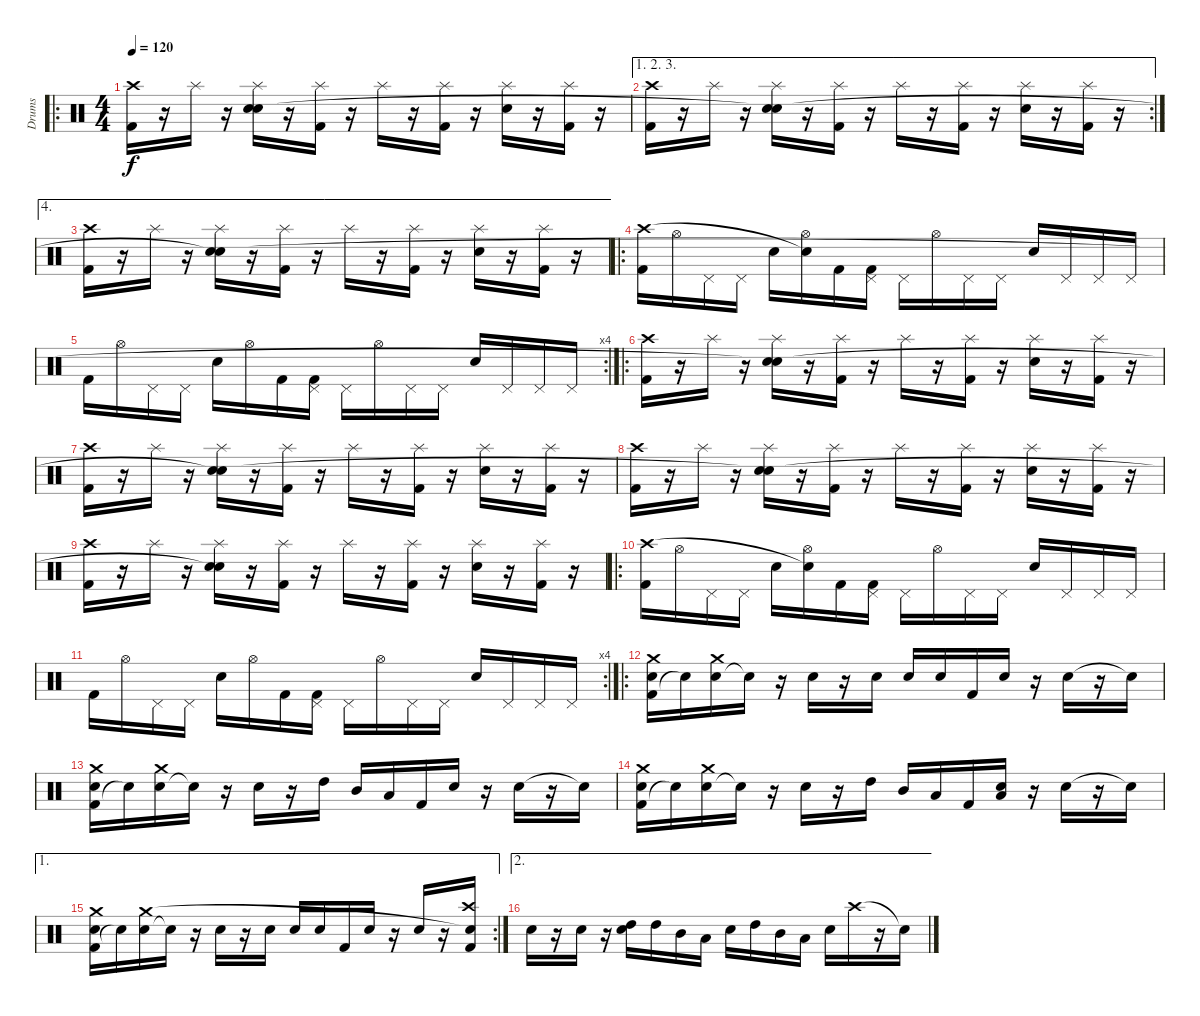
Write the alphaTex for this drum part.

\track ("Drums" "Drums") {instrument percussion}
\staff {score}
\articulation defaults
\ro
\ts (4 4)
\tempo 120
\clef neutral
\ks c
("Kick (hit) 2" "Crash high (hit)").16{dy f} r.16 "Splash (hit)".16 r.16 ("Snare (hit) 2" "Splash (hit)" "Snare (hit)").16 r.16 ("Kick (hit) 2" "Splash (hit)").16 r.16 "Splash (hit)".16 r.16 ("Kick (hit) 2" "Splash (hit)").16 r.16 ("Snare (hit) 2" "Splash (hit)").16 r.16 ("Kick (hit) 2" "Splash (hit)").16 r.16 |
\ae (1 2 3)
\rc 2
("Kick (hit) 2" "Crash high (hit)").16 r.16 "Splash (hit)".16 r.16 ("Snare (hit) 2" "Splash (hit)" "Snare (hit)"{t}).16 r.16 ("Kick (hit) 2" "Splash (hit)").16 r.16 "Splash (hit)".16 r.16 ("Kick (hit) 2" "Splash (hit)").16 r.16 ("Snare (hit) 2" "Splash (hit)").16 r.16 ("Kick (hit) 2" "Splash (hit)").16 r.16 |
\ae 4
("Kick (hit) 2" "Crash high (hit)").16 r.16 "Splash (hit)".16 r.16 ("Snare (hit) 2" "Splash (hit)" "Snare (hit)"{t}).16 r.16 ("Kick (hit) 2" "Splash (hit)").16 r.16 "Splash (hit)".16 r.16 ("Kick (hit) 2" "Splash (hit)").16 r.16 ("Snare (hit) 2" "Splash (hit)").16 r.16 ("Kick (hit) 2" "Splash (hit)").16 r.16 |
\ro
("Kick (hit) 2" "Crash high (hit)").16 "Hi-Hat (open)".16 "Pedal Hi-Hat (hit)".16 "Pedal Hi-Hat (hit)".16 "Snare (hit) 2".16 ("Hi-Hat (open)" "Snare (hit)"{t}).16 "Kick (hit) 2".16 ("Kick (hit) 2" "Pedal Hi-Hat (hit)").16 "Pedal Hi-Hat (hit)".16 "Hi-Hat (open)".16 "Pedal Hi-Hat (hit)".16 "Pedal Hi-Hat (hit)".16 "Snare (hit) 2".16 "Pedal Hi-Hat (hit)".16 "Pedal Hi-Hat (hit)".16 "Pedal Hi-Hat (hit)".16 |
\rc 4 "Kick (hit) 2".16 "Hi-Hat (open)".16 "Pedal Hi-Hat (hit)".16 "Pedal Hi-Hat (hit)".16 "Snare (hit) 2".16 "Hi-Hat (open)".16 "Kick (hit) 2".16
("Kick (hit) 2" "Pedal Hi-Hat (hit)").16 "Pedal Hi-Hat (hit)".16 "Hi-Hat (open)".16 "Pedal Hi-Hat (hit)".16 "Pedal Hi-Hat (hit)".16 "Snare (hit) 2".16 "Pedal Hi-Hat (hit)".16 "Pedal Hi-Hat (hit)".16 "Pedal Hi-Hat (hit)".16 |
\ro
("Kick (hit) 2" "Crash high (hit)").16 r.16 "Splash (hit)".16 r.16 ("Snare (hit) 2" "Splash (hit)" "Snare (hit)"{t}).16 r.16 ("Kick (hit) 2" "Splash (hit)").16 r.16 "Splash (hit)".16 r.16 ("Kick (hit) 2" "Splash (hit)").16 r.16 ("Snare (hit) 2" "Splash (hit)").16 r.16 ("Kick (hit) 2" "Splash (hit)").16 r.16 |
("Kick (hit) 2" "Crash high (hit)").16 r.16 "Splash (hit)".16 r.16 ("Snare (hit) 2" "Splash (hit)" "Snare (hit)"{t}).16 r.16 ("Kick (hit) 2" "Splash (hit)").16 r.16 "Splash (hit)".16 r.16 ("Kick (hit) 2" "Splash (hit)").16 r.16 ("Snare (hit) 2" "Splash (hit)").16 r.16 ("Kick (hit) 2" "Splash (hit)").16 r.16 |
("Kick (hit) 2" "Crash high (hit)").16 r.16 "Splash (hit)".16 r.16 ("Snare (hit) 2" "Splash (hit)" "Snare (hit)"{t}).16 r.16 ("Kick (hit) 2" "Splash (hit)").16 r.16 "Splash (hit)".16 r.16 ("Kick (hit) 2" "Splash (hit)").16 r.16 ("Snare (hit) 2" "Splash (hit)").16 r.16 ("Kick (hit) 2" "Splash (hit)").16 r.16 |
("Kick (hit) 2" "Crash high (hit)").16 r.16 "Splash (hit)".16 r.16 ("Snare (hit) 2" "Splash (hit)" "Snare (hit)"{t}).16 r.16 ("Kick (hit) 2" "Splash (hit)").16 r.16 "Splash (hit)".16 r.16 ("Kick (hit) 2" "Splash (hit)").16 r.16 ("Snare (hit) 2" "Splash (hit)").16 r.16 ("Kick (hit) 2" "Splash (hit)").16 r.16 |
\ro
("Kick (hit) 2" "Crash high (hit)").16 "Hi-Hat (open)".16 "Pedal Hi-Hat (hit)".16 "Pedal Hi-Hat (hit)".16 "Snare (hit) 2".16 ("Hi-Hat (open)" "Snare (hit)"{t}).16 "Kick (hit) 2".16 ("Kick (hit) 2" "Pedal Hi-Hat (hit)").16 "Pedal Hi-Hat (hit)".16 "Hi-Hat (open)".16 "Pedal Hi-Hat (hit)".16 "Pedal Hi-Hat (hit)".16 "Snare (hit) 2".16 "Pedal Hi-Hat (hit)".16 "Pedal Hi-Hat (hit)".16 "Pedal Hi-Hat (hit)".16 |
\rc 4 "Kick (hit) 2".16 "Hi-Hat (open)".16 "Pedal Hi-Hat (hit)".16 "Pedal Hi-Hat (hit)".16 "Snare (hit) 2".16 "Hi-Hat (open)".16 "Kick (hit) 2".16
("Kick (hit) 2" "Pedal Hi-Hat (hit)").16 "Pedal Hi-Hat (hit)".16 "Hi-Hat (open)".16 "Pedal Hi-Hat (hit)".16 "Pedal Hi-Hat (hit)".16 "Snare (hit) 2".16 "Pedal Hi-Hat (hit)".16 "Pedal Hi-Hat (hit)".16 "Pedal Hi-Hat (hit)".16 |
\ro
("Kick (hit) 2" "Snare (hit) 2" "Crash medium (hit)").16 "Snare (hit)"{t}.16 ("Snare (hit) 2" "Crash medium (hit)").16 "Snare (hit)"{t}.16 r.16 "Snare (hit) 2".16 r.16 "Snare (hit) 2".16 "Snare (hit) 2".16 "Snare (hit) 2".16 "Kick (hit) 2".16 "Snare (hit) 2".16 r.16 "Snare (hit) 2".16 r.16 "Snare (hit)"{t}.16 |
("Kick (hit) 2" "Snare (hit) 2" "Crash medium (hit)").16 "Snare (hit)"{t}.16 ("Snare (hit) 2" "Crash medium (hit)").16 "Snare (hit)"{t}.16 r.16 "Snare (hit) 2".16 r.16 "High Tom (hit)".16 "Mid Tom (hit)".16 "Low Tom (hit)".16 "Kick (hit) 2".16 "Snare (hit) 2".16 r.16 "Snare (hit) 2".16 r.16 "Snare (hit)"{t}.16 |
("Kick (hit) 2" "Snare (hit) 2" "Crash medium (hit)").16 "Snare (hit)"{t}.16 ("Snare (hit) 2" "Crash medium (hit)").16 "Snare (hit)"{t}.16 r.16 "Snare (hit) 2".16 r.16 "High Tom (hit)".16 "Mid Tom (hit)".16 "Low Tom (hit)".16 "Kick (hit) 2".16 ("Snare (hit) 2" "Low Tom (hit)").16 r.16 "Snare (hit) 2".16 r.16 "Snare (hit)"{t}.16 |
\ae 1
\rc 2
("Kick (hit) 2" "Snare (hit) 2" "Crash medium (hit)").16 "Snare (hit)"{t}.16 ("Snare (hit) 2" "Crash medium (hit)").16 "Snare (hit)"{t}.16 r.16 "Snare (hit) 2".16 r.16 "Snare (hit) 2".16 "Snare (hit) 2".16 "Snare (hit) 2".16 "Kick (hit) 2".16 "Snare (hit) 2".16 r.16 "Snare (hit) 2".16 r.16 ("Kick (hit) 2" "Snare (hit)"{t} "Crash high (hit)").16 |
\ae 2 "Snare (hit) 2".16
r.16 "Snare (hit) 2".16 r.16 ("Snare (hit) 2" "High Tom (hit)").16 "High Tom (hit)".16 "Mid Tom (hit)".16 "Low Tom (hit)".16 "Snare (hit) 2".16 "High Tom (hit)".16 "Mid Tom (hit)".16 "Low Tom (hit)".16 "Snare (hit) 2".16 "Crash high (hit)".16 r.16 "Snare (hit)"{t}.16
